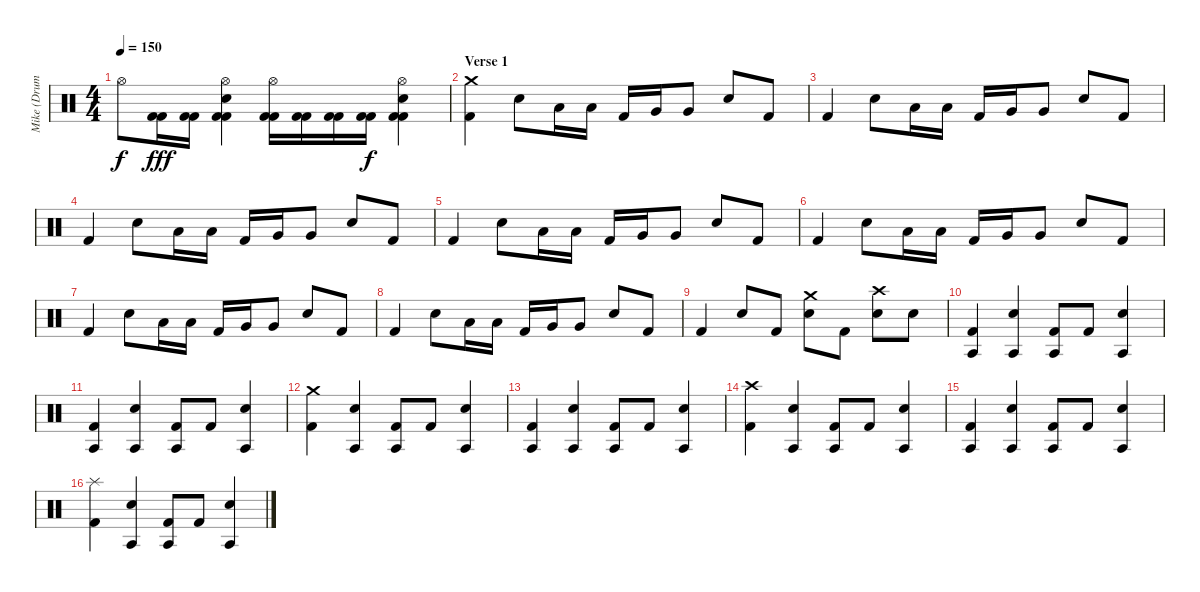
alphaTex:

\track ("Mike (Drums)" "Mike (Drum") {instrument percussion}
\staff {score}
\articulation defaults
\ts (4 4)
\tempo 150
\clef neutral
\ks c "Hi-Hat (open)".8{dy f}
("Kick (hit) 2" "Kick (hit) 2").16{dy fff} ("Kick (hit) 2" "Kick (hit) 2").16 ("Hi-Hat (open)" "Snare (hit) 2" "Kick (hit) 2" "Kick (hit) 2").4 ("Hi-Hat (open)" "Kick (hit) 2" "Kick (hit) 2").16 ("Kick (hit) 2" "Kick (hit) 2").16 ("Kick (hit) 2" "Kick (hit) 2").16 ("Kick (hit) 2" "Kick (hit) 2").16{dy f} ("Hi-Hat (open)" "Snare (hit) 2" "Kick (hit) 2" "Kick (hit) 2").4 |
\section ("" "Verse 1")
("Crash medium (hit)" "Kick (hit) 2").4 "Snare (hit) 2".8 "Low Tom (hit)".16 "Low Tom (hit)".16 "Kick (hit) 2".16 "Very Low Tom (hit)".16 "Very Low Tom (hit)".8 "Snare (hit) 2".8 "Kick (hit) 2".8 |
"Kick (hit) 2".4 "Snare (hit) 2".8 "Low Tom (hit)".16 "Low Tom (hit)".16 "Kick (hit) 2".16 "Very Low Tom (hit)".16 "Very Low Tom (hit)".8 "Snare (hit) 2".8 "Kick (hit) 2".8 |
"Kick (hit) 2".4 "Snare (hit) 2".8 "Low Tom (hit)".16 "Low Tom (hit)".16 "Kick (hit) 2".16 "Very Low Tom (hit)".16 "Very Low Tom (hit)".8 "Snare (hit) 2".8 "Kick (hit) 2".8 |
"Kick (hit) 2".4 "Snare (hit) 2".8 "Low Tom (hit)".16 "Low Tom (hit)".16 "Kick (hit) 2".16 "Very Low Tom (hit)".16 "Very Low Tom (hit)".8 "Snare (hit) 2".8 "Kick (hit) 2".8 |
"Kick (hit) 2".4 "Snare (hit) 2".8 "Low Tom (hit)".16 "Low Tom (hit)".16 "Kick (hit) 2".16 "Very Low Tom (hit)".16 "Very Low Tom (hit)".8 "Snare (hit) 2".8 "Kick (hit) 2".8 |
"Kick (hit) 2".4 "Snare (hit) 2".8 "Low Tom (hit)".16 "Low Tom (hit)".16 "Kick (hit) 2".16 "Very Low Tom (hit)".16 "Very Low Tom (hit)".8 "Snare (hit) 2".8 "Kick (hit) 2".8 |
"Kick (hit) 2".4 "Snare (hit) 2".8 "Low Tom (hit)".16 "Low Tom (hit)".16 "Kick (hit) 2".16 "Very Low Tom (hit)".16 "Very Low Tom (hit)".8 "Snare (hit) 2".8 "Kick (hit) 2".8 |
"Kick (hit) 2".4 "Snare (hit) 2".8 "Kick (hit) 2".8 ("Snare (hit) 2" "Crash medium (hit)").8 "Kick (hit) 2".8 ("Snare (hit) 2" "Crash high (hit)").8 "Snare (hit) 2".8 |
("Agogo tow (hit)" "Kick (hit) 2").4 ("Agogo tow (hit)" "Snare (hit) 2").4 ("Agogo tow (hit)" "Kick (hit) 2").8 "Kick (hit) 2".8 ("Agogo tow (hit)" "Snare (hit) 2").4 |
("Agogo tow (hit)" "Kick (hit) 2").4 ("Agogo tow (hit)" "Snare (hit) 2").4 ("Agogo tow (hit)" "Kick (hit) 2").8 "Kick (hit) 2".8 ("Agogo tow (hit)" "Snare (hit) 2").4 |
("Crash medium (hit)" "Kick (hit) 2").4 ("Agogo tow (hit)" "Snare (hit) 2").4 ("Agogo tow (hit)" "Kick (hit) 2").8 "Kick (hit) 2".8 ("Agogo tow (hit)" "Snare (hit) 2").4 |
("Agogo tow (hit)" "Kick (hit) 2").4 ("Agogo tow (hit)" "Snare (hit) 2").4 ("Agogo tow (hit)" "Kick (hit) 2").8 "Kick (hit) 2".8 ("Agogo tow (hit)" "Snare (hit) 2").4 |
("Crash high (hit)" "Kick (hit) 2").4 ("Agogo tow (hit)" "Snare (hit) 2").4 ("Agogo tow (hit)" "Kick (hit) 2").8 "Kick (hit) 2".8 ("Agogo tow (hit)" "Snare (hit) 2").4 |
("Agogo tow (hit)" "Kick (hit) 2").4 ("Agogo tow (hit)" "Snare (hit) 2").4 ("Agogo tow (hit)" "Kick (hit) 2").8 "Kick (hit) 2".8 ("Agogo tow (hit)" "Snare (hit) 2").4 |
("Splash (hit)" "Kick (hit) 2").4 ("Agogo tow (hit)" "Snare (hit) 2").4 ("Agogo tow (hit)" "Kick (hit) 2").8 "Kick (hit) 2".8 ("Agogo tow (hit)" "Snare (hit) 2").4
